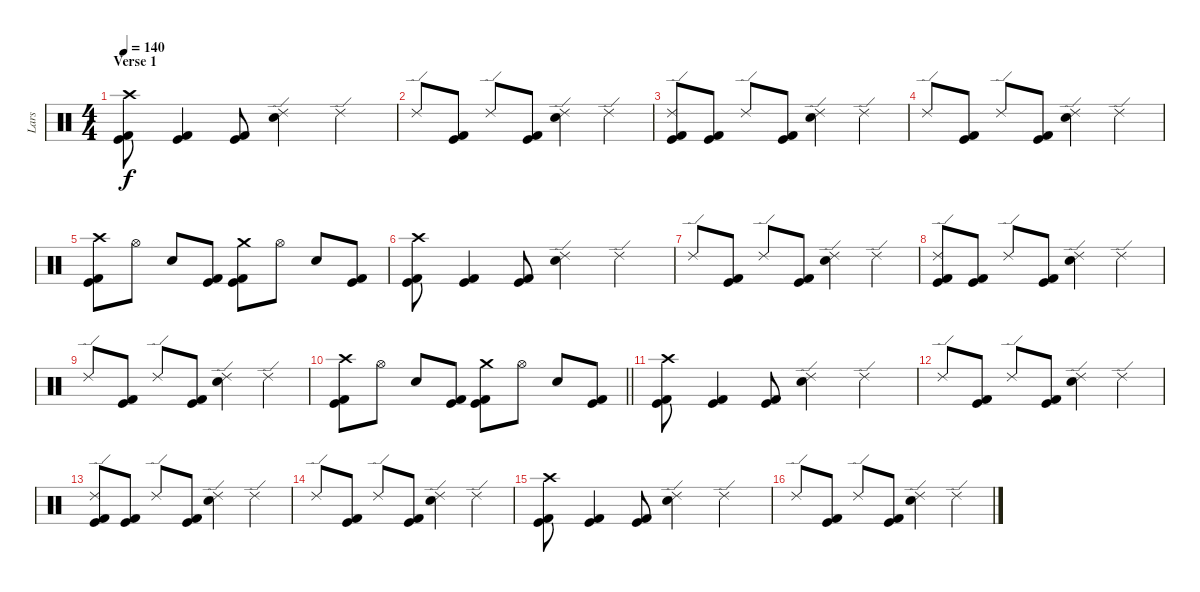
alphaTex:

\track ("Lars" "Lars") {instrument percussion}
\staff {score}
\articulation defaults
\ts (4 4)
\section ("" "Verse 1")
\tempo 140
\clef neutral
\ks c
("Crash high (hit)" "Kick (hit)" "Kick (hit) 2").8{dy f} ("Kick (hit)" "Kick (hit) 2").4 ("Kick (hit)" "Kick (hit) 2").8 ("Ride (edge) 2" "Electric Snare (hit)").4 "Ride (edge) 2".4 |
"Ride (edge) 2".8 ("Kick (hit)" "Kick (hit) 2").8 "Ride (edge) 2".8 ("Kick (hit)" "Kick (hit) 2").8 ("Ride (edge) 2" "Electric Snare (hit)").4 "Ride (edge) 2".4 |
("Ride (edge) 2" "Kick (hit)" "Kick (hit) 2").8 ("Kick (hit)" "Kick (hit) 2").8 "Ride (edge) 2".8 ("Kick (hit)" "Kick (hit) 2").8 ("Ride (edge) 2" "Electric Snare (hit)").4 "Ride (edge) 2".4 |
"Ride (edge) 2".8 ("Kick (hit)" "Kick (hit) 2").8 "Ride (edge) 2".8 ("Kick (hit)" "Kick (hit) 2").8 ("Ride (edge) 2" "Electric Snare (hit)").4 "Ride (edge) 2".4 |
("Crash high (hit)" "Kick (hit)" "Kick (hit) 2").8 "Hi-Hat (open)".8 "Electric Snare (hit)".8 ("Kick (hit)" "Kick (hit) 2").8 ("Crash medium (hit)" "Kick (hit)" "Kick (hit) 2").8 "Hi-Hat (open)".8 "Electric Snare (hit)".8 ("Kick (hit)" "Kick (hit) 2").8 |
("Crash high (hit)" "Kick (hit)" "Kick (hit) 2").8 ("Kick (hit)" "Kick (hit) 2").4 ("Kick (hit)" "Kick (hit) 2").8 ("Ride (edge) 2" "Electric Snare (hit)").4 "Ride (edge) 2".4 |
"Ride (edge) 2".8 ("Kick (hit)" "Kick (hit) 2").8 "Ride (edge) 2".8 ("Kick (hit)" "Kick (hit) 2").8 ("Ride (edge) 2" "Electric Snare (hit)").4 "Ride (edge) 2".4 |
("Ride (edge) 2" "Kick (hit)" "Kick (hit) 2").8 ("Kick (hit)" "Kick (hit) 2").8 "Ride (edge) 2".8 ("Kick (hit)" "Kick (hit) 2").8 ("Ride (edge) 2" "Electric Snare (hit)").4 "Ride (edge) 2".4 |
"Ride (edge) 2".8 ("Kick (hit)" "Kick (hit) 2").8 "Ride (edge) 2".8 ("Kick (hit)" "Kick (hit) 2").8 ("Ride (edge) 2" "Electric Snare (hit)").4 "Ride (edge) 2".4 |
\barLineRight lightlight
("Crash high (hit)" "Kick (hit)" "Kick (hit) 2").8 "Hi-Hat (open)".8 "Electric Snare (hit)".8 ("Kick (hit)" "Kick (hit) 2").8 ("Crash medium (hit)" "Kick (hit)" "Kick (hit) 2").8 "Hi-Hat (open)".8 "Electric Snare (hit)".8 ("Kick (hit)" "Kick (hit) 2").8 |
\section ("" "")
("Crash high (hit)" "Kick (hit)" "Kick (hit) 2").8 ("Kick (hit)" "Kick (hit) 2").4 ("Kick (hit)" "Kick (hit) 2").8 ("Ride (edge) 2" "Electric Snare (hit)").4 "Ride (edge) 2".4 |
"Ride (edge) 2".8 ("Kick (hit)" "Kick (hit) 2").8 "Ride (edge) 2".8 ("Kick (hit)" "Kick (hit) 2").8 ("Ride (edge) 2" "Electric Snare (hit)").4 "Ride (edge) 2".4 |
("Ride (edge) 2" "Kick (hit)" "Kick (hit) 2").8 ("Kick (hit)" "Kick (hit) 2").8 "Ride (edge) 2".8 ("Kick (hit)" "Kick (hit) 2").8 ("Ride (edge) 2" "Electric Snare (hit)").4 "Ride (edge) 2".4 |
"Ride (edge) 2".8 ("Kick (hit)" "Kick (hit) 2").8 "Ride (edge) 2".8 ("Kick (hit)" "Kick (hit) 2").8 ("Ride (edge) 2" "Electric Snare (hit)").4 "Ride (edge) 2".4 |
("Crash high (hit)" "Kick (hit)" "Kick (hit) 2").8 ("Kick (hit)" "Kick (hit) 2").4 ("Kick (hit)" "Kick (hit) 2").8 ("Ride (edge) 2" "Electric Snare (hit)").4 "Ride (edge) 2".4 |
"Ride (edge) 2".8 ("Kick (hit)" "Kick (hit) 2").8 "Ride (edge) 2".8 ("Kick (hit)" "Kick (hit) 2").8 ("Ride (edge) 2" "Electric Snare (hit)").4 "Ride (edge) 2".4
